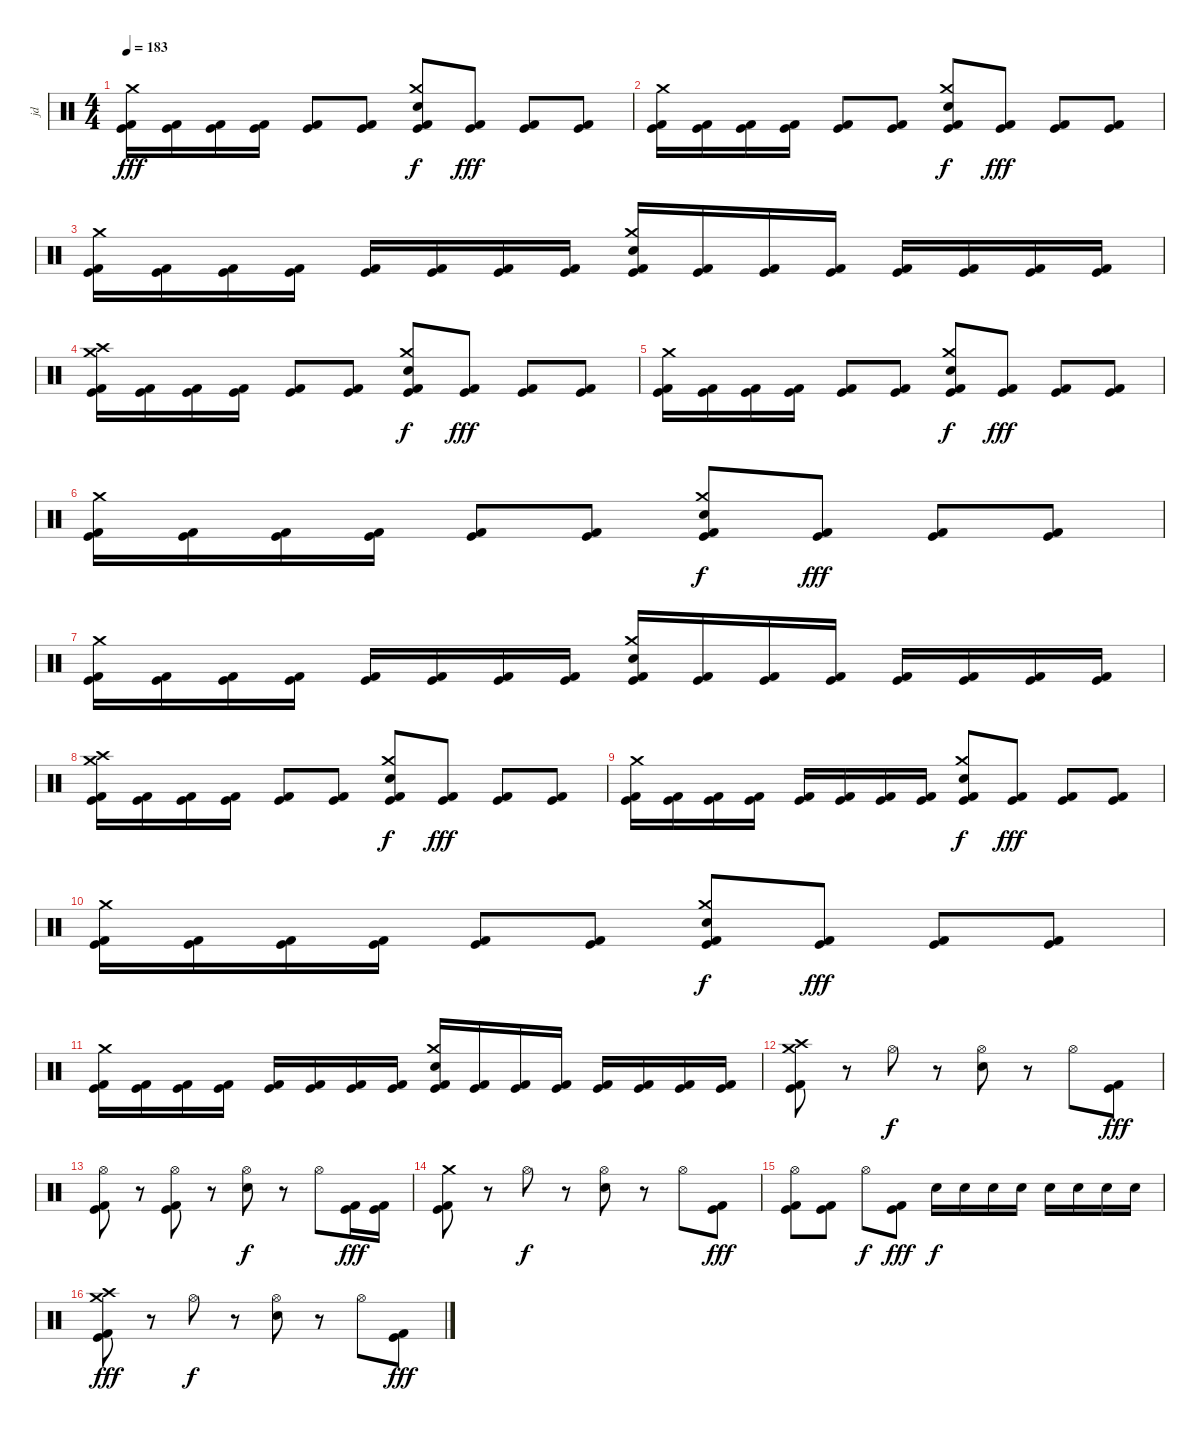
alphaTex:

\track ("jd" "jd") {instrument percussion}
\staff {score}
\articulation defaults
\ts (4 4)
\tempo 183
\clef neutral
\ks c
("Kick (hit)" "Kick (hit) 2" "Crash medium (hit)").16{dy fff} ("Kick (hit)" "Kick (hit) 2").16 ("Kick (hit)" "Kick (hit) 2").16 ("Kick (hit)" "Kick (hit) 2").16 ("Kick (hit)" "Kick (hit) 2").8 ("Kick (hit)" "Kick (hit) 2").8 ("Kick (hit)" "Kick (hit) 2" "Electric Snare (hit)" "Crash medium (hit)").8{dy f} ("Kick (hit)" "Kick (hit) 2").8{dy fff} ("Kick (hit)" "Kick (hit) 2").8 ("Kick (hit)" "Kick (hit) 2").8 |
("Kick (hit)" "Kick (hit) 2" "Crash medium (hit)").16 ("Kick (hit)" "Kick (hit) 2").16 ("Kick (hit)" "Kick (hit) 2").16 ("Kick (hit)" "Kick (hit) 2").16 ("Kick (hit)" "Kick (hit) 2").8 ("Kick (hit)" "Kick (hit) 2").8 ("Kick (hit)" "Kick (hit) 2" "Electric Snare (hit)" "Crash medium (hit)").8{dy f} ("Kick (hit)" "Kick (hit) 2").8{dy fff} ("Kick (hit)" "Kick (hit) 2").8 ("Kick (hit)" "Kick (hit) 2").8 |
("Kick (hit)" "Kick (hit) 2" "Crash medium (hit)").16 ("Kick (hit)" "Kick (hit) 2").16 ("Kick (hit)" "Kick (hit) 2").16 ("Kick (hit)" "Kick (hit) 2").16 ("Kick (hit)" "Kick (hit) 2").16 ("Kick (hit)" "Kick (hit) 2").16 ("Kick (hit)" "Kick (hit) 2").16 ("Kick (hit)" "Kick (hit) 2").16 ("Kick (hit)" "Kick (hit) 2" "Electric Snare (hit)" "Crash medium (hit)").16 ("Kick (hit)" "Kick (hit) 2").16 ("Kick (hit)" "Kick (hit) 2").16 ("Kick (hit)" "Kick (hit) 2").16 ("Kick (hit)" "Kick (hit) 2").16 ("Kick (hit)" "Kick (hit) 2").16 ("Kick (hit)" "Kick (hit) 2").16 ("Kick (hit)" "Kick (hit) 2").16 |
("Kick (hit)" "Kick (hit) 2" "Crash high (hit)" "Crash medium (hit)").16 ("Kick (hit)" "Kick (hit) 2").16 ("Kick (hit)" "Kick (hit) 2").16 ("Kick (hit)" "Kick (hit) 2").16 ("Kick (hit)" "Kick (hit) 2").8 ("Kick (hit)" "Kick (hit) 2").8 ("Kick (hit)" "Kick (hit) 2" "Electric Snare (hit)" "Crash medium (hit)").8{dy f} ("Kick (hit)" "Kick (hit) 2").8{dy fff} ("Kick (hit)" "Kick (hit) 2").8 ("Kick (hit)" "Kick (hit) 2").8 |
("Kick (hit)" "Kick (hit) 2" "Crash medium (hit)").16 ("Kick (hit)" "Kick (hit) 2").16 ("Kick (hit)" "Kick (hit) 2").16 ("Kick (hit)" "Kick (hit) 2").16 ("Kick (hit)" "Kick (hit) 2").8 ("Kick (hit)" "Kick (hit) 2").8 ("Kick (hit)" "Kick (hit) 2" "Electric Snare (hit)" "Crash medium (hit)").8{dy f} ("Kick (hit)" "Kick (hit) 2").8{dy fff} ("Kick (hit)" "Kick (hit) 2").8 ("Kick (hit)" "Kick (hit) 2").8 |
("Kick (hit)" "Kick (hit) 2" "Crash medium (hit)").16 ("Kick (hit)" "Kick (hit) 2").16 ("Kick (hit)" "Kick (hit) 2").16 ("Kick (hit)" "Kick (hit) 2").16 ("Kick (hit)" "Kick (hit) 2").8 ("Kick (hit)" "Kick (hit) 2").8 ("Kick (hit)" "Kick (hit) 2" "Electric Snare (hit)" "Crash medium (hit)").8{dy f} ("Kick (hit)" "Kick (hit) 2").8{dy fff} ("Kick (hit)" "Kick (hit) 2").8 ("Kick (hit)" "Kick (hit) 2").8 |
("Kick (hit)" "Kick (hit) 2" "Crash medium (hit)").16 ("Kick (hit)" "Kick (hit) 2").16 ("Kick (hit)" "Kick (hit) 2").16 ("Kick (hit)" "Kick (hit) 2").16 ("Kick (hit)" "Kick (hit) 2").16 ("Kick (hit)" "Kick (hit) 2").16 ("Kick (hit)" "Kick (hit) 2").16 ("Kick (hit)" "Kick (hit) 2").16 ("Kick (hit)" "Kick (hit) 2" "Electric Snare (hit)" "Crash medium (hit)").16 ("Kick (hit)" "Kick (hit) 2").16 ("Kick (hit)" "Kick (hit) 2").16 ("Kick (hit)" "Kick (hit) 2").16 ("Kick (hit)" "Kick (hit) 2").16 ("Kick (hit)" "Kick (hit) 2").16 ("Kick (hit)" "Kick (hit) 2").16 ("Kick (hit)" "Kick (hit) 2").16 |
("Kick (hit)" "Kick (hit) 2" "Crash high (hit)" "Crash medium (hit)").16 ("Kick (hit)" "Kick (hit) 2").16 ("Kick (hit)" "Kick (hit) 2").16 ("Kick (hit)" "Kick (hit) 2").16 ("Kick (hit)" "Kick (hit) 2").8 ("Kick (hit)" "Kick (hit) 2").8 ("Kick (hit)" "Kick (hit) 2" "Electric Snare (hit)" "Crash medium (hit)").8{dy f} ("Kick (hit)" "Kick (hit) 2").8{dy fff} ("Kick (hit)" "Kick (hit) 2").8 ("Kick (hit)" "Kick (hit) 2").8 |
("Kick (hit)" "Kick (hit) 2" "Crash medium (hit)").16 ("Kick (hit)" "Kick (hit) 2").16 ("Kick (hit)" "Kick (hit) 2").16 ("Kick (hit)" "Kick (hit) 2").16 ("Kick (hit)" "Kick (hit) 2").16 ("Kick (hit)" "Kick (hit) 2").16 ("Kick (hit)" "Kick (hit) 2").16 ("Kick (hit)" "Kick (hit) 2").16 ("Kick (hit)" "Kick (hit) 2" "Electric Snare (hit)" "Crash medium (hit)").8{dy f} ("Kick (hit)" "Kick (hit) 2").8{dy fff} ("Kick (hit)" "Kick (hit) 2").8 ("Kick (hit)" "Kick (hit) 2").8 |
("Kick (hit)" "Kick (hit) 2" "Crash medium (hit)").16 ("Kick (hit)" "Kick (hit) 2").16 ("Kick (hit)" "Kick (hit) 2").16 ("Kick (hit)" "Kick (hit) 2").16 ("Kick (hit)" "Kick (hit) 2").8 ("Kick (hit)" "Kick (hit) 2").8 ("Kick (hit)" "Kick (hit) 2" "Electric Snare (hit)" "Crash medium (hit)").8{dy f} ("Kick (hit)" "Kick (hit) 2").8{dy fff} ("Kick (hit)" "Kick (hit) 2").8 ("Kick (hit)" "Kick (hit) 2").8 |
("Kick (hit)" "Kick (hit) 2" "Crash medium (hit)").16 ("Kick (hit)" "Kick (hit) 2").16 ("Kick (hit)" "Kick (hit) 2").16 ("Kick (hit)" "Kick (hit) 2").16 ("Kick (hit)" "Kick (hit) 2").16 ("Kick (hit)" "Kick (hit) 2").16 ("Kick (hit)" "Kick (hit) 2").16 ("Kick (hit)" "Kick (hit) 2").16 ("Kick (hit)" "Kick (hit) 2" "Electric Snare (hit)" "Crash medium (hit)").16 ("Kick (hit)" "Kick (hit) 2").16 ("Kick (hit)" "Kick (hit) 2").16 ("Kick (hit)" "Kick (hit) 2").16 ("Kick (hit)" "Kick (hit) 2").16 ("Kick (hit)" "Kick (hit) 2").16 ("Kick (hit)" "Kick (hit) 2").16 ("Kick (hit)" "Kick (hit) 2").16 |
("Kick (hit)" "Kick (hit) 2" "Crash high (hit)" "Crash medium (hit)").8 r.8 "Hi-Hat (open)".8{dy f} r.8 ("Electric Snare (hit)" "Hi-Hat (open)").8 r.8 "Hi-Hat (open)".8 ("Kick (hit)" "Kick (hit) 2").8{dy fff} |
("Kick (hit)" "Kick (hit) 2" "Hi-Hat (open)").8 r.8 ("Kick (hit)" "Kick (hit) 2" "Hi-Hat (open)").8 r.8 ("Electric Snare (hit)" "Hi-Hat (open)").8{dy f} r.8 "Hi-Hat (open)".8 ("Kick (hit)" "Kick (hit) 2").16{dy fff} ("Kick (hit)" "Kick (hit) 2").16 |
("Kick (hit)" "Kick (hit) 2" "Crash medium (hit)").8 r.8 "Hi-Hat (open)".8{dy f} r.8 ("Electric Snare (hit)" "Hi-Hat (open)").8 r.8 "Hi-Hat (open)".8 ("Kick (hit)" "Kick (hit) 2").8{dy fff} |
("Kick (hit)" "Kick (hit) 2" "Hi-Hat (open)").8 ("Kick (hit)" "Kick (hit) 2").8 "Hi-Hat (open)".8{dy f} ("Kick (hit)" "Kick (hit) 2").8{dy fff} "Electric Snare (hit)".16{dy f} "Electric Snare (hit)".16 "Electric Snare (hit)".16 "Electric Snare (hit)".16 "Electric Snare (hit)".16 "Electric Snare (hit)".16 "Electric Snare (hit)".16 "Electric Snare (hit)".16 |
("Kick (hit)" "Kick (hit) 2" "Crash high (hit)" "Crash medium (hit)").8{dy fff} r.8 "Hi-Hat (open)".8{dy f} r.8 ("Electric Snare (hit)" "Hi-Hat (open)").8 r.8 "Hi-Hat (open)".8 ("Kick (hit)" "Kick (hit) 2").8{dy fff}
